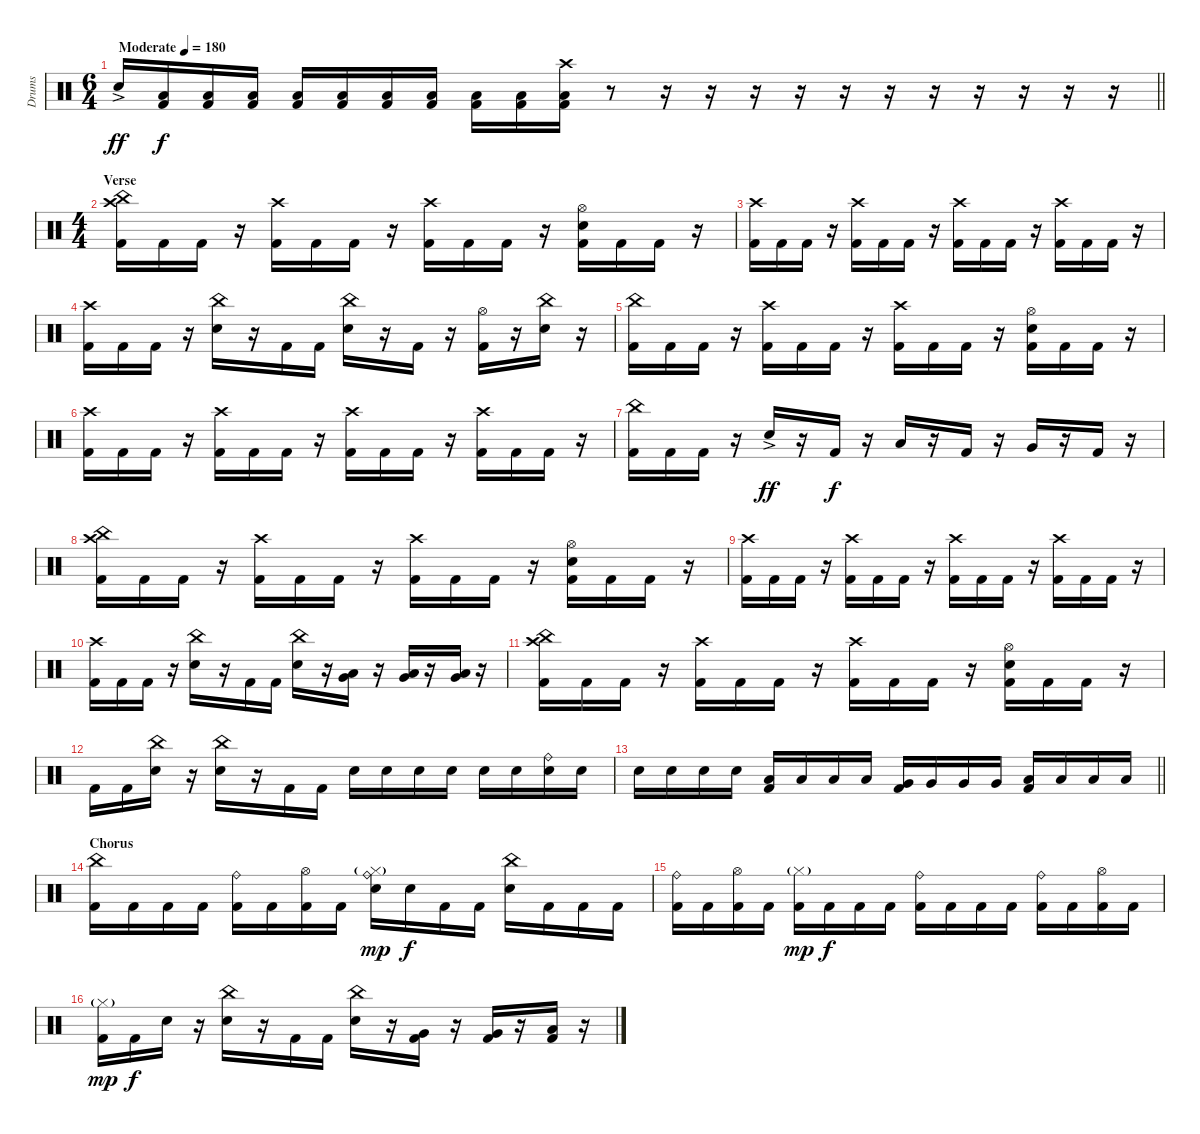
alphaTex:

\track ("Drums" "Drums") {instrument percussion}
\staff {score}
\articulation defaults
\ts (6 4)
\tempo (180 "Moderate")
\clef neutral
\barLineRight lightlight
\ks c "Electric Snare (hit)"{ac}.16{dy ff}
("Kick (hit) 2" "Low Tom (hit)").16{dy f} ("Kick (hit) 2" "Low Tom (hit)").16 ("Kick (hit) 2" "Low Tom (hit)").16 ("Kick (hit) 2" "Low Tom (hit)").16 ("Kick (hit) 2" "Low Tom (hit)").16 ("Kick (hit) 2" "Low Tom (hit)").16 ("Kick (hit) 2" "Low Tom (hit)").16 ("Kick (hit) 2" "Low Tom (hit)").16 ("Kick (hit) 2" "Low Tom (hit)").16 ("Kick (hit) 2" "Low Tom (hit)" "Crash high (hit)").16 r.8 r.16 r.16 r.16 r.16 r.16 r.16 r.16 r.16 r.16 r.16 r.16 |
\ts (4 4)
\section ("" "Verse ")
("China (hit)" "Crash high (hit)" "Kick (hit) 2").16 "Kick (hit) 2".16 "Kick (hit) 2".16 r.16 ("Crash high (hit)" "Kick (hit) 2").16 "Kick (hit) 2".16 "Kick (hit) 2".16 r.16 ("Crash high (hit)" "Kick (hit) 2").16 "Kick (hit) 2".16 "Kick (hit) 2".16 r.16 ("Hi-Hat (open)" "Electric Snare (hit)" "Kick (hit) 2").16 "Kick (hit) 2".16 "Kick (hit) 2".16 r.16 |
("Crash high (hit)" "Kick (hit) 2").16 "Kick (hit) 2".16 "Kick (hit) 2".16 r.16 ("Crash high (hit)" "Kick (hit) 2").16 "Kick (hit) 2".16 "Kick (hit) 2".16 r.16 ("Crash high (hit)" "Kick (hit) 2").16 "Kick (hit) 2".16 "Kick (hit) 2".16 r.16 ("Crash high (hit)" "Kick (hit) 2").16 "Kick (hit) 2".16 "Kick (hit) 2".16 r.16 |
("Crash high (hit)" "Kick (hit) 2").16 "Kick (hit) 2".16 "Kick (hit) 2".16 r.16 ("China (hit)" "Electric Snare (hit)").16 r.16 "Kick (hit) 2".16 "Kick (hit) 2".16 ("China (hit)" "Electric Snare (hit)").16 r.16 "Kick (hit) 2".16 r.16 ("Hi-Hat (open)" "Kick (hit) 2").16 r.16 ("China (hit)" "Electric Snare (hit)").16 r.16 |
("China (hit)" "Kick (hit) 2").16 "Kick (hit) 2".16 "Kick (hit) 2".16 r.16 ("Crash high (hit)" "Kick (hit) 2").16 "Kick (hit) 2".16 "Kick (hit) 2".16 r.16 ("Crash high (hit)" "Kick (hit) 2").16 "Kick (hit) 2".16 "Kick (hit) 2".16 r.16 ("Hi-Hat (open)" "Electric Snare (hit)" "Kick (hit) 2").16 "Kick (hit) 2".16 "Kick (hit) 2".16 r.16 |
("Crash high (hit)" "Kick (hit) 2").16 "Kick (hit) 2".16 "Kick (hit) 2".16 r.16 ("Crash high (hit)" "Kick (hit) 2").16 "Kick (hit) 2".16 "Kick (hit) 2".16 r.16 ("Crash high (hit)" "Kick (hit) 2").16 "Kick (hit) 2".16 "Kick (hit) 2".16 r.16 ("Crash high (hit)" "Kick (hit) 2").16 "Kick (hit) 2".16 "Kick (hit) 2".16 r.16 |
("China (hit)" "Kick (hit) 2").16 "Kick (hit) 2".16 "Kick (hit) 2".16 r.16 "Electric Snare (hit)"{ac}.16{dy ff} r.16 "Kick (hit) 2".16{dy f} r.16 "Low Tom (hit)".16 r.16 "Kick (hit) 2".16 r.16 "Very Low Tom (hit)".16 r.16 "Kick (hit) 2".16 r.16 |
("China (hit)" "Crash high (hit)" "Kick (hit) 2").16 "Kick (hit) 2".16 "Kick (hit) 2".16 r.16 ("Crash high (hit)" "Kick (hit) 2").16 "Kick (hit) 2".16 "Kick (hit) 2".16 r.16 ("Crash high (hit)" "Kick (hit) 2").16 "Kick (hit) 2".16 "Kick (hit) 2".16 r.16 ("Hi-Hat (open)" "Electric Snare (hit)" "Kick (hit) 2").16 "Kick (hit) 2".16 "Kick (hit) 2".16 r.16 |
("Crash high (hit)" "Kick (hit) 2").16 "Kick (hit) 2".16 "Kick (hit) 2".16 r.16 ("Crash high (hit)" "Kick (hit) 2").16 "Kick (hit) 2".16 "Kick (hit) 2".16 r.16 ("Crash high (hit)" "Kick (hit) 2").16 "Kick (hit) 2".16 "Kick (hit) 2".16 r.16 ("Crash high (hit)" "Kick (hit) 2").16 "Kick (hit) 2".16 "Kick (hit) 2".16 r.16 |
("Crash high (hit)" "Kick (hit) 2").16 "Kick (hit) 2".16 "Kick (hit) 2".16 r.16 ("China (hit)" "Electric Snare (hit)").16 r.16 "Kick (hit) 2".16 "Kick (hit) 2".16 ("China (hit)" "Electric Snare (hit)").16 r.16 ("Low Floor Tom (hit)" "Very Low Tom (hit)").16 r.16 ("Very Low Tom (hit)" "Low Tom (hit)").16 r.16 ("Low Floor Tom (hit)" "Very Low Tom (hit)").16 r.16 |
("China (hit)" "Crash high (hit)" "Kick (hit) 2").16 "Kick (hit) 2".16 "Kick (hit) 2".16 r.16 ("Crash high (hit)" "Kick (hit) 2").16 "Kick (hit) 2".16 "Kick (hit) 2".16 r.16 ("Crash high (hit)" "Kick (hit) 2").16 "Kick (hit) 2".16 "Kick (hit) 2".16 r.16 ("Hi-Hat (open)" "Electric Snare (hit)" "Kick (hit) 2").16 "Kick (hit) 2".16 "Kick (hit) 2".16 r.16 |
"Kick (hit) 2".16 "Kick (hit) 2".16 ("China (hit)" "Electric Snare (hit)").16 r.16 ("China (hit)" "Electric Snare (hit)").16 r.16 "Kick (hit) 2".16 "Kick (hit) 2".16 "Electric Snare (hit)".16 "Electric Snare (hit)".16 "Electric Snare (hit)".16 "Electric Snare (hit)".16 "Electric Snare (hit)".16 "Electric Snare (hit)".16 ("Ride (bell)" "Electric Snare (hit)").16 "Electric Snare (hit)".16 |
\barLineRight lightlight "Electric Snare (hit)".16 "Electric Snare (hit)".16 "Electric Snare (hit)".16 "Electric Snare (hit)".16
("Low Tom (hit)" "Kick (hit) 2").16 "Low Tom (hit)".16 "Low Tom (hit)".16 "Low Tom (hit)".16 ("Very Low Tom (hit)" "Kick (hit) 2").16 "Very Low Tom (hit)".16 "Very Low Tom (hit)".16 "Very Low Tom (hit)".16 ("Low Floor Tom (hit)" "Kick (hit) 2").16 "Low Floor Tom (hit)".16 "Low Floor Tom (hit)".16 "Low Floor Tom (hit)".16 |
\section ("" "Chorus")
("China (hit)" "Kick (hit) 2").16 "Kick (hit) 2".16 "Kick (hit) 2".16 "Kick (hit) 2".16 ("Ride (bell)" "Kick (hit) 2").16 "Kick (hit) 2".16 ("Hi-Hat (open)" "Kick (hit) 2").16 "Kick (hit) 2".16 ("Hi-Hat (closed)"{g} "Ride (bell)" "Electric Snare (hit)").16{dy mp} "Electric Snare (hit)".16{dy f} "Kick (hit) 2".16 "Kick (hit) 2".16 ("China (hit)" "Electric Snare (hit)").16 "Kick (hit) 2".16 "Kick (hit) 2".16 "Kick (hit) 2".16 |
("Ride (bell)" "Kick (hit) 2").16 "Kick (hit) 2".16 ("Hi-Hat (open)" "Kick (hit) 2").16 "Kick (hit) 2".16 ("Hi-Hat (closed)"{g} "Kick (hit) 2").16{dy mp} "Kick (hit) 2".16{dy f} "Kick (hit) 2".16 "Kick (hit) 2".16 ("Ride (bell)" "Kick (hit) 2").16 "Kick (hit) 2".16 "Kick (hit) 2".16 "Kick (hit) 2".16 ("Ride (bell)" "Kick (hit) 2").16 "Kick (hit) 2".16 ("Hi-Hat (open)" "Kick (hit) 2").16 "Kick (hit) 2".16 |
("Hi-Hat (closed)"{g} "Kick (hit) 2").16{dy mp} "Kick (hit) 2".16{dy f} "Electric Snare (hit)".16 r.16 ("China (hit)" "Electric Snare (hit)").16 r.16 "Kick (hit) 2".16 "Kick (hit) 2".16 ("China (hit)" "Electric Snare (hit)").16 r.16 ("Very Low Tom (hit)" "Kick (hit) 2").16 r.16 ("Very Low Tom (hit)" "Kick (hit) 2").16 r.16 ("Low Floor Tom (hit)" "Kick (hit) 2").16 r.16
